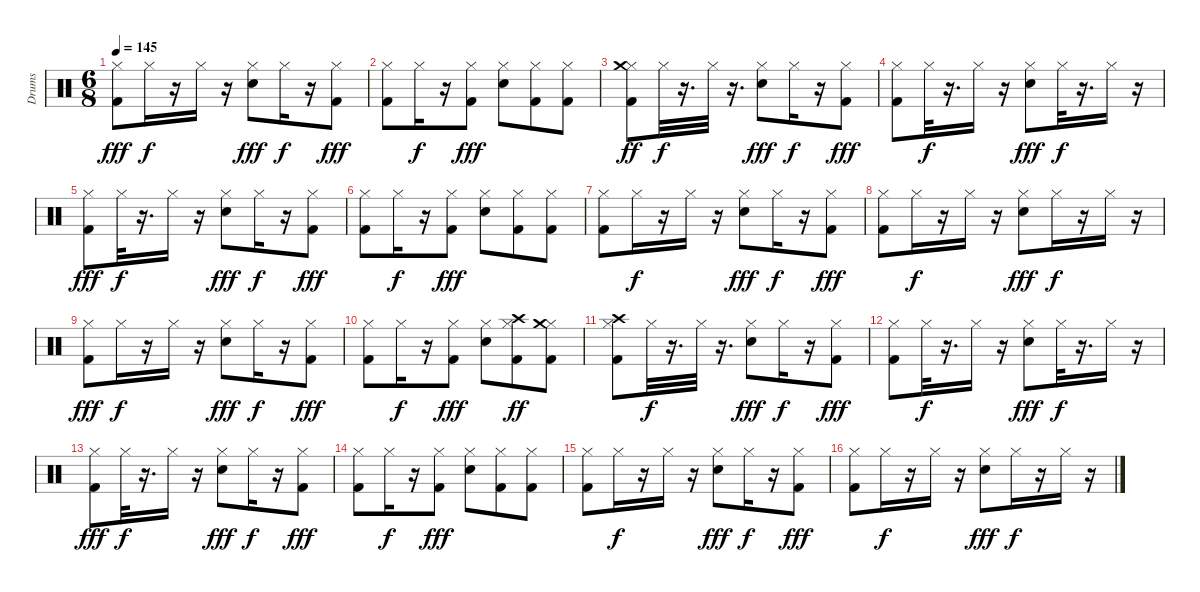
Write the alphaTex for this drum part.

\track ("Drums" "Drums") {instrument percussion}
\staff {score}
\articulation defaults
\ts (6 8)
\tempo 145
\clef neutral
\ks c
("Kick (hit) 2" "Hi-Hat (closed)").8{dy fff} "Hi-Hat (closed)".16{dy f} r.16 "Hi-Hat (closed)".16 r.16 ("Snare (hit) 2" "Hi-Hat (closed)").8{dy fff} "Hi-Hat (closed)".16{dy f} r.16 ("Kick (hit) 2" "Hi-Hat (closed)").8{dy fff} |
("Kick (hit) 2" "Hi-Hat (closed)").8 "Hi-Hat (closed)".16{dy f} r.16 ("Kick (hit) 2" "Hi-Hat (closed)").8{dy fff} ("Snare (hit) 2" "Hi-Hat (closed)").8 ("Kick (hit) 2" "Hi-Hat (closed)").8 ("Kick (hit) 2" "Hi-Hat (closed)").8 |
("Kick (hit) 2" "Hi-Hat (closed)" "Crash medium (hit)").8{dy ff} "Hi-Hat (closed)".32{dy f} r.16{d} "Hi-Hat (closed)".32 r.16{d} ("Snare (hit) 2" "Hi-Hat (closed)").8{dy fff} "Hi-Hat (closed)".16{dy f} r.16 ("Kick (hit) 2" "Hi-Hat (closed)").8{dy fff} |
("Kick (hit) 2" "Hi-Hat (closed)").8 "Hi-Hat (closed)".32{dy f} r.16{d} "Hi-Hat (closed)".16 r.16 ("Snare (hit) 2" "Hi-Hat (closed)").8{dy fff} "Hi-Hat (closed)".32{dy f} r.16{d} "Hi-Hat (closed)".16 r.16 |
("Kick (hit) 2" "Hi-Hat (closed)").8{dy fff} "Hi-Hat (closed)".32{dy f} r.16{d} "Hi-Hat (closed)".16 r.16 ("Snare (hit) 2" "Hi-Hat (closed)").8{dy fff} "Hi-Hat (closed)".16{dy f} r.16 ("Kick (hit) 2" "Hi-Hat (closed)").8{dy fff} |
("Kick (hit) 2" "Hi-Hat (closed)").8 "Hi-Hat (closed)".16{dy f} r.16 ("Kick (hit) 2" "Hi-Hat (closed)").8{dy fff} ("Snare (hit) 2" "Hi-Hat (closed)").8 ("Kick (hit) 2" "Hi-Hat (closed)").8 ("Kick (hit) 2" "Hi-Hat (closed)").8 |
("Kick (hit) 2" "Hi-Hat (closed)").8 "Hi-Hat (closed)".16{dy f} r.16 "Hi-Hat (closed)".16 r.16 ("Snare (hit) 2" "Hi-Hat (closed)").8{dy fff} "Hi-Hat (closed)".16{dy f} r.16 ("Kick (hit) 2" "Hi-Hat (closed)").8{dy fff} |
("Kick (hit) 2" "Hi-Hat (closed)").8 "Hi-Hat (closed)".16{dy f} r.16 "Hi-Hat (closed)".16 r.16 ("Snare (hit) 2" "Hi-Hat (closed)").8{dy fff} "Hi-Hat (closed)".16{dy f} r.16 "Hi-Hat (closed)".16 r.16 |
("Kick (hit) 2" "Hi-Hat (closed)").8{dy fff} "Hi-Hat (closed)".16{dy f} r.16 "Hi-Hat (closed)".16 r.16 ("Snare (hit) 2" "Hi-Hat (closed)").8{dy fff} "Hi-Hat (closed)".16{dy f} r.16 ("Kick (hit) 2" "Hi-Hat (closed)").8{dy fff} |
("Kick (hit) 2" "Hi-Hat (closed)").8 "Hi-Hat (closed)".16{dy f} r.16 ("Kick (hit) 2" "Hi-Hat (closed)").8{dy fff} ("Snare (hit) 2" "Hi-Hat (closed)").8 ("Kick (hit) 2" "Hi-Hat (closed)" "Crash high (hit)").8{dy ff} ("Kick (hit) 2" "Hi-Hat (closed)" "Crash medium (hit)").8 |
("Kick (hit) 2" "Hi-Hat (closed)" "Crash high (hit)").8 "Hi-Hat (closed)".32{dy f} r.16{d} "Hi-Hat (closed)".32 r.16{d} ("Snare (hit) 2" "Hi-Hat (closed)").8{dy fff} "Hi-Hat (closed)".16{dy f} r.16 ("Kick (hit) 2" "Hi-Hat (closed)").8{dy fff} |
("Kick (hit) 2" "Hi-Hat (closed)").8 "Hi-Hat (closed)".32{dy f} r.16{d} "Hi-Hat (closed)".16 r.16 ("Snare (hit) 2" "Hi-Hat (closed)").8{dy fff} "Hi-Hat (closed)".32{dy f} r.16{d} "Hi-Hat (closed)".16 r.16 |
("Kick (hit) 2" "Hi-Hat (closed)").8{dy fff} "Hi-Hat (closed)".32{dy f} r.16{d} "Hi-Hat (closed)".16 r.16 ("Snare (hit) 2" "Hi-Hat (closed)").8{dy fff} "Hi-Hat (closed)".16{dy f} r.16 ("Kick (hit) 2" "Hi-Hat (closed)").8{dy fff} |
("Kick (hit) 2" "Hi-Hat (closed)").8 "Hi-Hat (closed)".16{dy f} r.16 ("Kick (hit) 2" "Hi-Hat (closed)").8{dy fff} ("Snare (hit) 2" "Hi-Hat (closed)").8 ("Kick (hit) 2" "Hi-Hat (closed)").8 ("Kick (hit) 2" "Hi-Hat (closed)").8 |
("Kick (hit) 2" "Hi-Hat (closed)").8 "Hi-Hat (closed)".16{dy f} r.16 "Hi-Hat (closed)".16 r.16 ("Snare (hit) 2" "Hi-Hat (closed)").8{dy fff} "Hi-Hat (closed)".16{dy f} r.16 ("Kick (hit) 2" "Hi-Hat (closed)").8{dy fff} |
("Kick (hit) 2" "Hi-Hat (closed)").8 "Hi-Hat (closed)".16{dy f} r.16 "Hi-Hat (closed)".16 r.16 ("Snare (hit) 2" "Hi-Hat (closed)").8{dy fff} "Hi-Hat (closed)".16{dy f} r.16 "Hi-Hat (closed)".16 r.16
